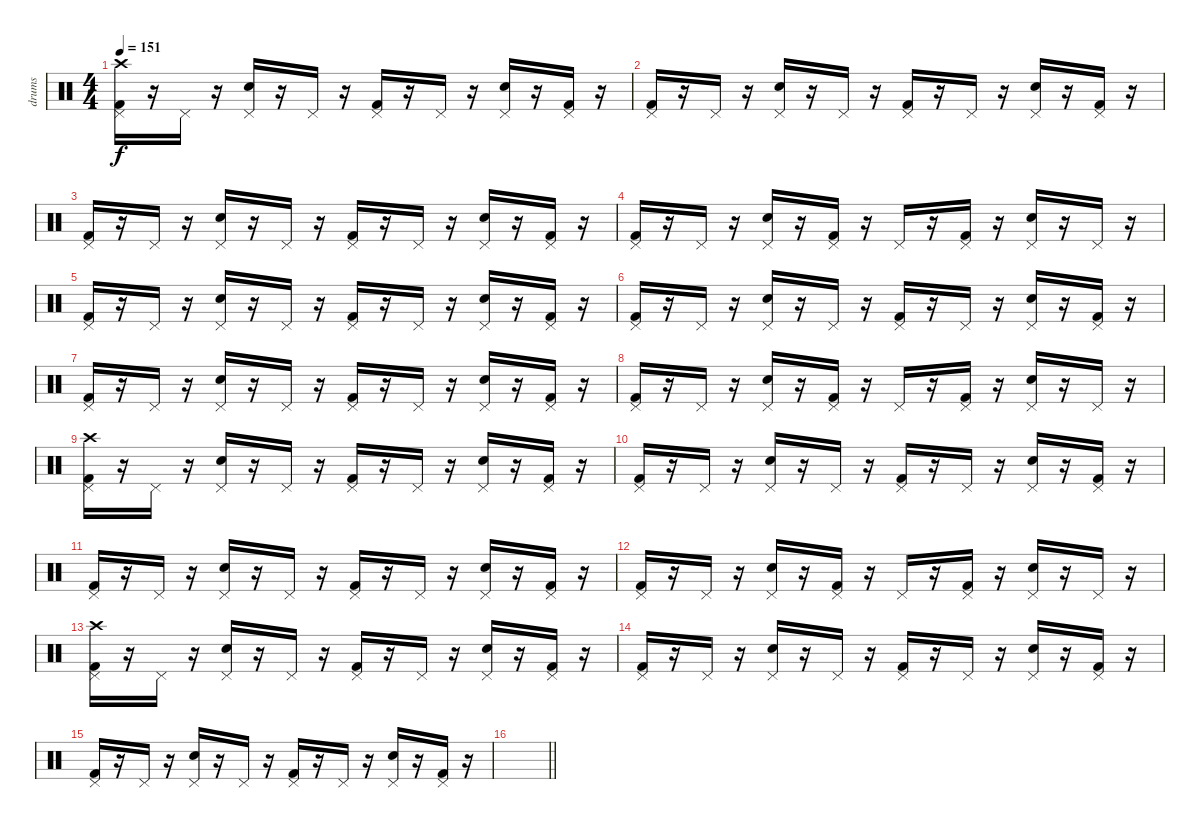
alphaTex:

\track ("drums" "drums") {instrument percussion}
\staff {score}
\articulation defaults
\ts (4 4)
\tempo 151
\clef neutral
\ks c
("Kick (hit) 2" "Pedal Hi-Hat (hit)" "Crash high (hit)").16{dy f} r.16 "Pedal Hi-Hat (hit)".16 r.16 ("Electric Snare (hit)" "Pedal Hi-Hat (hit)").16 r.16 "Pedal Hi-Hat (hit)".16 r.16 ("Kick (hit) 2" "Pedal Hi-Hat (hit)").16 r.16 "Pedal Hi-Hat (hit)".16 r.16 ("Electric Snare (hit)" "Pedal Hi-Hat (hit)").16 r.16 ("Kick (hit) 2" "Pedal Hi-Hat (hit)").16 r.16 |
("Kick (hit) 2" "Pedal Hi-Hat (hit)").16 r.16 "Pedal Hi-Hat (hit)".16 r.16 ("Electric Snare (hit)" "Pedal Hi-Hat (hit)").16 r.16 "Pedal Hi-Hat (hit)".16 r.16 ("Kick (hit) 2" "Pedal Hi-Hat (hit)").16 r.16 "Pedal Hi-Hat (hit)".16 r.16 ("Electric Snare (hit)" "Pedal Hi-Hat (hit)").16 r.16 ("Kick (hit) 2" "Pedal Hi-Hat (hit)").16 r.16 |
("Kick (hit) 2" "Pedal Hi-Hat (hit)").16 r.16 "Pedal Hi-Hat (hit)".16 r.16 ("Electric Snare (hit)" "Pedal Hi-Hat (hit)").16 r.16 "Pedal Hi-Hat (hit)".16 r.16 ("Kick (hit) 2" "Pedal Hi-Hat (hit)").16 r.16 "Pedal Hi-Hat (hit)".16 r.16 ("Electric Snare (hit)" "Pedal Hi-Hat (hit)").16 r.16 ("Kick (hit) 2" "Pedal Hi-Hat (hit)").16 r.16 |
("Kick (hit) 2" "Pedal Hi-Hat (hit)").16 r.16 "Pedal Hi-Hat (hit)".16 r.16 ("Electric Snare (hit)" "Pedal Hi-Hat (hit)").16 r.16 ("Kick (hit) 2" "Pedal Hi-Hat (hit)").16 r.16 "Pedal Hi-Hat (hit)".16 r.16 ("Kick (hit) 2" "Pedal Hi-Hat (hit)").16 r.16 ("Electric Snare (hit)" "Pedal Hi-Hat (hit)").16 r.16 "Pedal Hi-Hat (hit)".16 r.16 |
("Kick (hit) 2" "Pedal Hi-Hat (hit)").16 r.16 "Pedal Hi-Hat (hit)".16 r.16 ("Electric Snare (hit)" "Pedal Hi-Hat (hit)").16 r.16 "Pedal Hi-Hat (hit)".16 r.16 ("Kick (hit) 2" "Pedal Hi-Hat (hit)").16 r.16 "Pedal Hi-Hat (hit)".16 r.16 ("Electric Snare (hit)" "Pedal Hi-Hat (hit)").16 r.16 ("Kick (hit) 2" "Pedal Hi-Hat (hit)").16 r.16 |
("Kick (hit) 2" "Pedal Hi-Hat (hit)").16 r.16 "Pedal Hi-Hat (hit)".16 r.16 ("Electric Snare (hit)" "Pedal Hi-Hat (hit)").16 r.16 "Pedal Hi-Hat (hit)".16 r.16 ("Kick (hit) 2" "Pedal Hi-Hat (hit)").16 r.16 "Pedal Hi-Hat (hit)".16 r.16 ("Electric Snare (hit)" "Pedal Hi-Hat (hit)").16 r.16 ("Kick (hit) 2" "Pedal Hi-Hat (hit)").16 r.16 |
("Kick (hit) 2" "Pedal Hi-Hat (hit)").16 r.16 "Pedal Hi-Hat (hit)".16 r.16 ("Electric Snare (hit)" "Pedal Hi-Hat (hit)").16 r.16 "Pedal Hi-Hat (hit)".16 r.16 ("Kick (hit) 2" "Pedal Hi-Hat (hit)").16 r.16 "Pedal Hi-Hat (hit)".16 r.16 ("Electric Snare (hit)" "Pedal Hi-Hat (hit)").16 r.16 ("Kick (hit) 2" "Pedal Hi-Hat (hit)").16 r.16 |
("Kick (hit) 2" "Pedal Hi-Hat (hit)").16 r.16 "Pedal Hi-Hat (hit)".16 r.16 ("Electric Snare (hit)" "Pedal Hi-Hat (hit)").16 r.16 ("Kick (hit) 2" "Pedal Hi-Hat (hit)").16 r.16 "Pedal Hi-Hat (hit)".16 r.16 ("Kick (hit) 2" "Pedal Hi-Hat (hit)").16 r.16 ("Electric Snare (hit)" "Pedal Hi-Hat (hit)").16 r.16 "Pedal Hi-Hat (hit)".16 r.16 |
("Kick (hit) 2" "Pedal Hi-Hat (hit)" "Crash high (hit)").16 r.16 "Pedal Hi-Hat (hit)".16 r.16 ("Electric Snare (hit)" "Pedal Hi-Hat (hit)").16 r.16 "Pedal Hi-Hat (hit)".16 r.16 ("Kick (hit) 2" "Pedal Hi-Hat (hit)").16 r.16 "Pedal Hi-Hat (hit)".16 r.16 ("Electric Snare (hit)" "Pedal Hi-Hat (hit)").16 r.16 ("Kick (hit) 2" "Pedal Hi-Hat (hit)").16 r.16 |
("Kick (hit) 2" "Pedal Hi-Hat (hit)").16 r.16 "Pedal Hi-Hat (hit)".16 r.16 ("Electric Snare (hit)" "Pedal Hi-Hat (hit)").16 r.16 "Pedal Hi-Hat (hit)".16 r.16 ("Kick (hit) 2" "Pedal Hi-Hat (hit)").16 r.16 "Pedal Hi-Hat (hit)".16 r.16 ("Electric Snare (hit)" "Pedal Hi-Hat (hit)").16 r.16 ("Kick (hit) 2" "Pedal Hi-Hat (hit)").16 r.16 |
("Kick (hit) 2" "Pedal Hi-Hat (hit)").16 r.16 "Pedal Hi-Hat (hit)".16 r.16 ("Electric Snare (hit)" "Pedal Hi-Hat (hit)").16 r.16 "Pedal Hi-Hat (hit)".16 r.16 ("Kick (hit) 2" "Pedal Hi-Hat (hit)").16 r.16 "Pedal Hi-Hat (hit)".16 r.16 ("Electric Snare (hit)" "Pedal Hi-Hat (hit)").16 r.16 ("Kick (hit) 2" "Pedal Hi-Hat (hit)").16 r.16 |
("Kick (hit) 2" "Pedal Hi-Hat (hit)").16 r.16 "Pedal Hi-Hat (hit)".16 r.16 ("Electric Snare (hit)" "Pedal Hi-Hat (hit)").16 r.16 ("Kick (hit) 2" "Pedal Hi-Hat (hit)").16 r.16 "Pedal Hi-Hat (hit)".16 r.16 ("Kick (hit) 2" "Pedal Hi-Hat (hit)").16 r.16 ("Electric Snare (hit)" "Pedal Hi-Hat (hit)").16 r.16 "Pedal Hi-Hat (hit)".16 r.16 |
("Kick (hit) 2" "Pedal Hi-Hat (hit)" "Crash high (hit)").16 r.16 "Pedal Hi-Hat (hit)".16 r.16 ("Electric Snare (hit)" "Pedal Hi-Hat (hit)").16 r.16 "Pedal Hi-Hat (hit)".16 r.16 ("Kick (hit) 2" "Pedal Hi-Hat (hit)").16 r.16 "Pedal Hi-Hat (hit)".16 r.16 ("Electric Snare (hit)" "Pedal Hi-Hat (hit)").16 r.16 ("Kick (hit) 2" "Pedal Hi-Hat (hit)").16 r.16 |
("Kick (hit) 2" "Pedal Hi-Hat (hit)").16 r.16 "Pedal Hi-Hat (hit)".16 r.16 ("Electric Snare (hit)" "Pedal Hi-Hat (hit)").16 r.16 "Pedal Hi-Hat (hit)".16 r.16 ("Kick (hit) 2" "Pedal Hi-Hat (hit)").16 r.16 "Pedal Hi-Hat (hit)".16 r.16 ("Electric Snare (hit)" "Pedal Hi-Hat (hit)").16 r.16 ("Kick (hit) 2" "Pedal Hi-Hat (hit)").16 r.16 |
("Kick (hit) 2" "Pedal Hi-Hat (hit)").16 r.16 "Pedal Hi-Hat (hit)".16 r.16 ("Electric Snare (hit)" "Pedal Hi-Hat (hit)").16 r.16 "Pedal Hi-Hat (hit)".16 r.16 ("Kick (hit) 2" "Pedal Hi-Hat (hit)").16 r.16 "Pedal Hi-Hat (hit)".16 r.16 ("Electric Snare (hit)" "Pedal Hi-Hat (hit)").16 r.16 ("Kick (hit) 2" "Pedal Hi-Hat (hit)").16 r.16 |
\barLineRight lightlight
